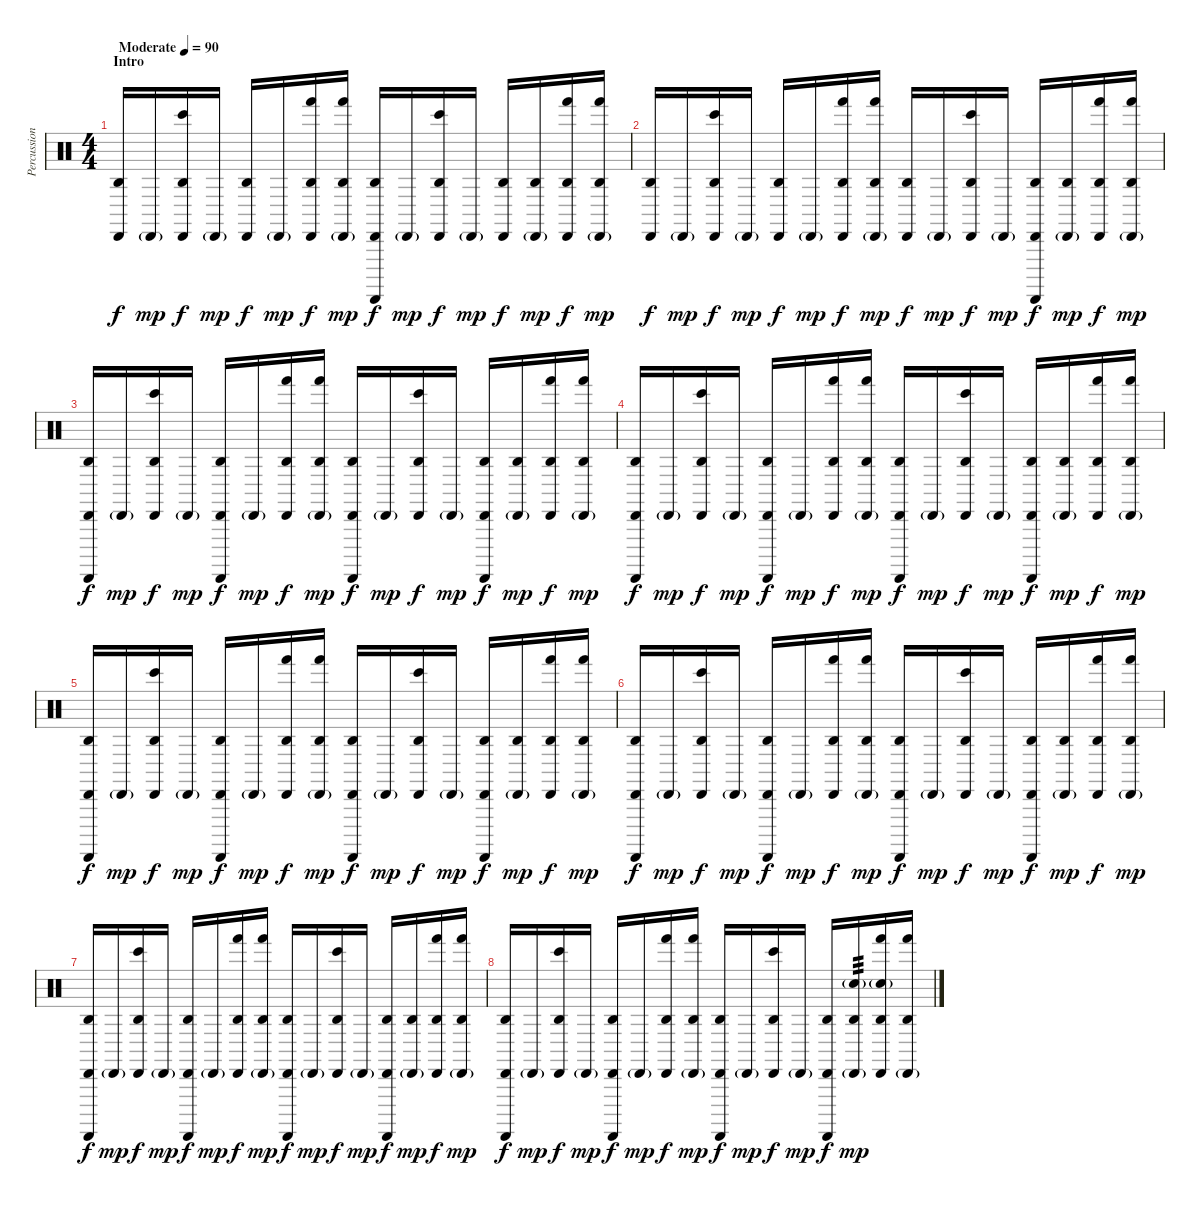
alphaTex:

\track ("Percussion" "Percussion") {instrument percussion}
\staff {score}
\articulation defaults
\ts (4 4)
\section ("" "Intro")
\tempo (90 "Moderate")
\clef neutral
\ks c
("Cabasa (hit)" "Agogo high (hit)").16{dy f} "Cabasa (hit)"{g}.16{dy mp} ("Cabasa (hit)" "Agogo high (hit)" "Bongo High (hit)").16{dy f} "Cabasa (hit)"{g}.16{dy mp} ("Cabasa (hit)" "Agogo high (hit)").16{dy f} "Cabasa (hit)"{g}.16{dy mp} ("Cabasa (hit)" "Agogo high (hit)" "Hand (hit)").16{dy f} ("Cabasa (hit)"{g} "Agogo high (hit)" "Hand (hit)").16{dy mp} ("Cabasa (hit)" "Agogo high (hit)" "Guiro (scrap-return)").16{dy f} "Cabasa (hit)"{g}.16{dy mp} ("Cabasa (hit)" "Agogo high (hit)" "Bongo High (hit)").16{dy f} "Cabasa (hit)"{g}.16{dy mp} ("Cabasa (hit)" "Agogo high (hit)").16{dy f} ("Cabasa (hit)"{g} "Agogo high (hit)").16{dy mp} ("Cabasa (hit)" "Agogo high (hit)" "Hand (hit)").16{dy f} ("Cabasa (hit)"{g} "Agogo high (hit)" "Hand (hit)").16{dy mp} |
("Cabasa (hit)" "Agogo high (hit)").16{dy f} "Cabasa (hit)"{g}.16{dy mp} ("Cabasa (hit)" "Agogo high (hit)" "Bongo High (hit)").16{dy f} "Cabasa (hit)"{g}.16{dy mp} ("Cabasa (hit)" "Agogo high (hit)").16{dy f} "Cabasa (hit)"{g}.16{dy mp} ("Cabasa (hit)" "Agogo high (hit)" "Hand (hit)").16{dy f} ("Cabasa (hit)"{g} "Agogo high (hit)" "Hand (hit)").16{dy mp} ("Cabasa (hit)" "Agogo high (hit)").16{dy f} "Cabasa (hit)"{g}.16{dy mp} ("Cabasa (hit)" "Agogo high (hit)" "Bongo High (hit)").16{dy f} "Cabasa (hit)"{g}.16{dy mp} ("Cabasa (hit)" "Agogo high (hit)" "Guiro (scrap-return)").16{dy f} ("Cabasa (hit)"{g} "Agogo high (hit)").16{dy mp} ("Cabasa (hit)" "Agogo high (hit)" "Hand (hit)").16{dy f} ("Cabasa (hit)"{g} "Agogo high (hit)" "Hand (hit)").16{dy mp} |
("Cabasa (hit)" "Agogo high (hit)" "Guiro (scrap-return)").16{dy f} "Cabasa (hit)"{g}.16{dy mp} ("Cabasa (hit)" "Agogo high (hit)" "Bongo High (hit)").16{dy f} "Cabasa (hit)"{g}.16{dy mp} ("Cabasa (hit)" "Agogo high (hit)" "Guiro (scrap-return)").16{dy f} "Cabasa (hit)"{g}.16{dy mp} ("Cabasa (hit)" "Agogo high (hit)" "Hand (hit)").16{dy f} ("Cabasa (hit)"{g} "Agogo high (hit)" "Hand (hit)").16{dy mp} ("Cabasa (hit)" "Agogo high (hit)" "Guiro (scrap-return)").16{dy f} "Cabasa (hit)"{g}.16{dy mp} ("Cabasa (hit)" "Agogo high (hit)" "Bongo High (hit)").16{dy f} "Cabasa (hit)"{g}.16{dy mp} ("Cabasa (hit)" "Agogo high (hit)" "Guiro (scrap-return)").16{dy f} ("Cabasa (hit)"{g} "Agogo high (hit)").16{dy mp} ("Cabasa (hit)" "Agogo high (hit)" "Hand (hit)").16{dy f} ("Cabasa (hit)"{g} "Agogo high (hit)" "Hand (hit)").16{dy mp} |
("Cabasa (hit)" "Agogo high (hit)" "Guiro (scrap-return)").16{dy f} "Cabasa (hit)"{g}.16{dy mp} ("Cabasa (hit)" "Agogo high (hit)" "Bongo High (hit)").16{dy f} "Cabasa (hit)"{g}.16{dy mp} ("Cabasa (hit)" "Agogo high (hit)" "Guiro (scrap-return)").16{dy f} "Cabasa (hit)"{g}.16{dy mp} ("Cabasa (hit)" "Agogo high (hit)" "Hand (hit)").16{dy f} ("Cabasa (hit)"{g} "Agogo high (hit)" "Hand (hit)").16{dy mp} ("Cabasa (hit)" "Agogo high (hit)" "Guiro (scrap-return)").16{dy f} "Cabasa (hit)"{g}.16{dy mp} ("Cabasa (hit)" "Agogo high (hit)" "Bongo High (hit)").16{dy f} "Cabasa (hit)"{g}.16{dy mp} ("Cabasa (hit)" "Agogo high (hit)" "Guiro (scrap-return)").16{dy f} ("Cabasa (hit)"{g} "Agogo high (hit)").16{dy mp} ("Cabasa (hit)" "Agogo high (hit)" "Hand (hit)").16{dy f} ("Cabasa (hit)"{g} "Agogo high (hit)" "Hand (hit)").16{dy mp} |
("Cabasa (hit)" "Agogo high (hit)" "Guiro (scrap-return)").16{dy f} "Cabasa (hit)"{g}.16{dy mp} ("Cabasa (hit)" "Agogo high (hit)" "Bongo High (hit)").16{dy f} "Cabasa (hit)"{g}.16{dy mp} ("Cabasa (hit)" "Agogo high (hit)" "Guiro (scrap-return)").16{dy f} "Cabasa (hit)"{g}.16{dy mp} ("Cabasa (hit)" "Agogo high (hit)" "Hand (hit)").16{dy f} ("Cabasa (hit)"{g} "Agogo high (hit)" "Hand (hit)").16{dy mp} ("Cabasa (hit)" "Agogo high (hit)" "Guiro (scrap-return)").16{dy f} "Cabasa (hit)"{g}.16{dy mp} ("Cabasa (hit)" "Agogo high (hit)" "Bongo High (hit)").16{dy f} "Cabasa (hit)"{g}.16{dy mp} ("Cabasa (hit)" "Agogo high (hit)" "Guiro (scrap-return)").16{dy f} ("Cabasa (hit)"{g} "Agogo high (hit)").16{dy mp} ("Cabasa (hit)" "Agogo high (hit)" "Hand (hit)").16{dy f} ("Cabasa (hit)"{g} "Agogo high (hit)" "Hand (hit)").16{dy mp} |
("Cabasa (hit)" "Agogo high (hit)" "Guiro (scrap-return)").16{dy f} "Cabasa (hit)"{g}.16{dy mp} ("Cabasa (hit)" "Agogo high (hit)" "Bongo High (hit)").16{dy f} "Cabasa (hit)"{g}.16{dy mp} ("Cabasa (hit)" "Agogo high (hit)" "Guiro (scrap-return)").16{dy f} "Cabasa (hit)"{g}.16{dy mp} ("Cabasa (hit)" "Agogo high (hit)" "Hand (hit)").16{dy f} ("Cabasa (hit)"{g} "Agogo high (hit)" "Hand (hit)").16{dy mp} ("Cabasa (hit)" "Agogo high (hit)" "Guiro (scrap-return)").16{dy f} "Cabasa (hit)"{g}.16{dy mp} ("Cabasa (hit)" "Agogo high (hit)" "Bongo High (hit)").16{dy f} "Cabasa (hit)"{g}.16{dy mp} ("Cabasa (hit)" "Agogo high (hit)" "Guiro (scrap-return)").16{dy f} ("Cabasa (hit)"{g} "Agogo high (hit)").16{dy mp} ("Cabasa (hit)" "Agogo high (hit)" "Hand (hit)").16{dy f} ("Cabasa (hit)"{g} "Agogo high (hit)" "Hand (hit)").16{dy mp} |
("Cabasa (hit)" "Agogo high (hit)" "Guiro (scrap-return)").16{dy f} "Cabasa (hit)"{g}.16{dy mp} ("Cabasa (hit)" "Agogo high (hit)" "Bongo High (hit)").16{dy f} "Cabasa (hit)"{g}.16{dy mp} ("Cabasa (hit)" "Agogo high (hit)" "Guiro (scrap-return)").16{dy f} "Cabasa (hit)"{g}.16{dy mp} ("Cabasa (hit)" "Agogo high (hit)" "Hand (hit)").16{dy f} ("Cabasa (hit)"{g} "Agogo high (hit)" "Hand (hit)").16{dy mp} ("Cabasa (hit)" "Agogo high (hit)" "Guiro (scrap-return)").16{dy f} "Cabasa (hit)"{g}.16{dy mp} ("Cabasa (hit)" "Agogo high (hit)" "Bongo High (hit)").16{dy f} "Cabasa (hit)"{g}.16{dy mp} ("Cabasa (hit)" "Agogo high (hit)" "Guiro (scrap-return)").16{dy f} ("Cabasa (hit)"{g} "Agogo high (hit)").16{dy mp} ("Cabasa (hit)" "Agogo high (hit)" "Hand (hit)").16{dy f} ("Cabasa (hit)"{g} "Agogo high (hit)" "Hand (hit)").16{dy mp} |
("Cabasa (hit)" "Agogo high (hit)" "Guiro (scrap-return)").16{dy f} "Cabasa (hit)"{g}.16{dy mp} ("Cabasa (hit)" "Agogo high (hit)" "Bongo High (hit)").16{dy f} "Cabasa (hit)"{g}.16{dy mp} ("Cabasa (hit)" "Agogo high (hit)" "Guiro (scrap-return)").16{dy f} "Cabasa (hit)"{g}.16{dy mp} ("Cabasa (hit)" "Agogo high (hit)" "Hand (hit)").16{dy f} ("Cabasa (hit)"{g} "Agogo high (hit)" "Hand (hit)").16{dy mp} ("Cabasa (hit)" "Agogo high (hit)" "Guiro (scrap-return)").16{dy f} "Cabasa (hit)"{g}.16{dy mp} ("Cabasa (hit)" "Agogo high (hit)" "Bongo High (hit)").16{dy f} "Cabasa (hit)"{g}.16{dy mp} ("Cabasa (hit)" "Agogo high (hit)" "Guiro (scrap-return)").16{dy f} ("Snare (hit) 2"{g} "Cabasa (hit)"{g} "Agogo high (hit)").16{tp 3 dy mp} ("Snare (hit) 2"{g} "Cabasa (hit)" "Agogo high (hit)" "Hand (hit)").16 ("Cabasa (hit)"{g} "Agogo high (hit)" "Hand (hit)").16
